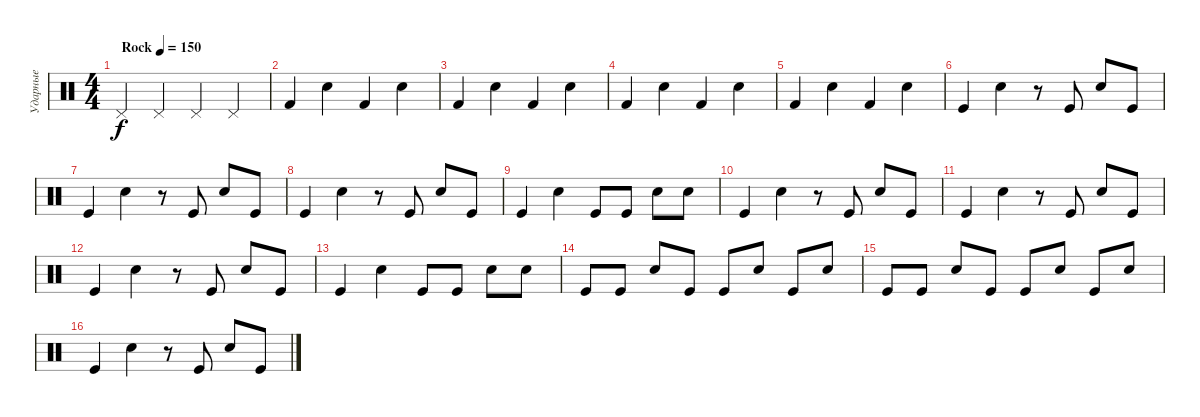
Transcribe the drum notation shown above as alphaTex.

\track ("Ударные" "Ударные") {instrument percussion}
\staff {score}
\articulation defaults
\ts (4 4)
\tempo (150 "Rock")
\clef neutral
\ks c "Pedal Hi-Hat (hit)".4{dy f} "Pedal Hi-Hat (hit)".4 "Pedal Hi-Hat (hit)".4 "Pedal Hi-Hat (hit)".4
|
"Kick (hit) 2".4 "Snare (hit) 2".4 "Kick (hit) 2".4 "Snare (hit) 2".4 |
"Kick (hit) 2".4 "Snare (hit) 2".4 "Kick (hit) 2".4 "Snare (hit) 2".4 |
"Kick (hit) 2".4 "Snare (hit) 2".4 "Kick (hit) 2".4 "Snare (hit) 2".4 |
"Kick (hit) 2".4 "Snare (hit) 2".4 "Kick (hit) 2".4 "Snare (hit) 2".4 |
"Kick (hit)".4 "Snare (hit) 2".4 r.8 "Kick (hit)".8 "Snare (hit) 2".8 "Kick (hit)".8 |
"Kick (hit)".4 "Snare (hit) 2".4 r.8 "Kick (hit)".8 "Snare (hit) 2".8 "Kick (hit)".8 |
"Kick (hit)".4 "Snare (hit) 2".4 r.8 "Kick (hit)".8 "Snare (hit) 2".8 "Kick (hit)".8 |
"Kick (hit)".4 "Snare (hit) 2".4 "Kick (hit)".8 "Kick (hit)".8 "Snare (hit) 2".8 "Snare (hit) 2".8 |
"Kick (hit)".4 "Snare (hit) 2".4 r.8 "Kick (hit)".8 "Snare (hit) 2".8 "Kick (hit)".8 |
"Kick (hit)".4 "Snare (hit) 2".4 r.8 "Kick (hit)".8 "Snare (hit) 2".8 "Kick (hit)".8 |
"Kick (hit)".4 "Snare (hit) 2".4 r.8 "Kick (hit)".8 "Snare (hit) 2".8 "Kick (hit)".8 |
"Kick (hit)".4 "Snare (hit) 2".4 "Kick (hit)".8 "Kick (hit)".8 "Snare (hit) 2".8 "Snare (hit) 2".8 |
"Kick (hit)".8 "Kick (hit)".8 "Snare (hit) 2".8 "Kick (hit)".8 "Kick (hit)".8 "Snare (hit) 2".8 "Kick (hit)".8 "Snare (hit) 2".8 |
"Kick (hit)".8 "Kick (hit)".8 "Snare (hit) 2".8 "Kick (hit)".8 "Kick (hit)".8 "Snare (hit) 2".8 "Kick (hit)".8 "Snare (hit) 2".8 |
"Kick (hit)".4 "Snare (hit) 2".4 r.8 "Kick (hit)".8 "Snare (hit) 2".8 "Kick (hit)".8
